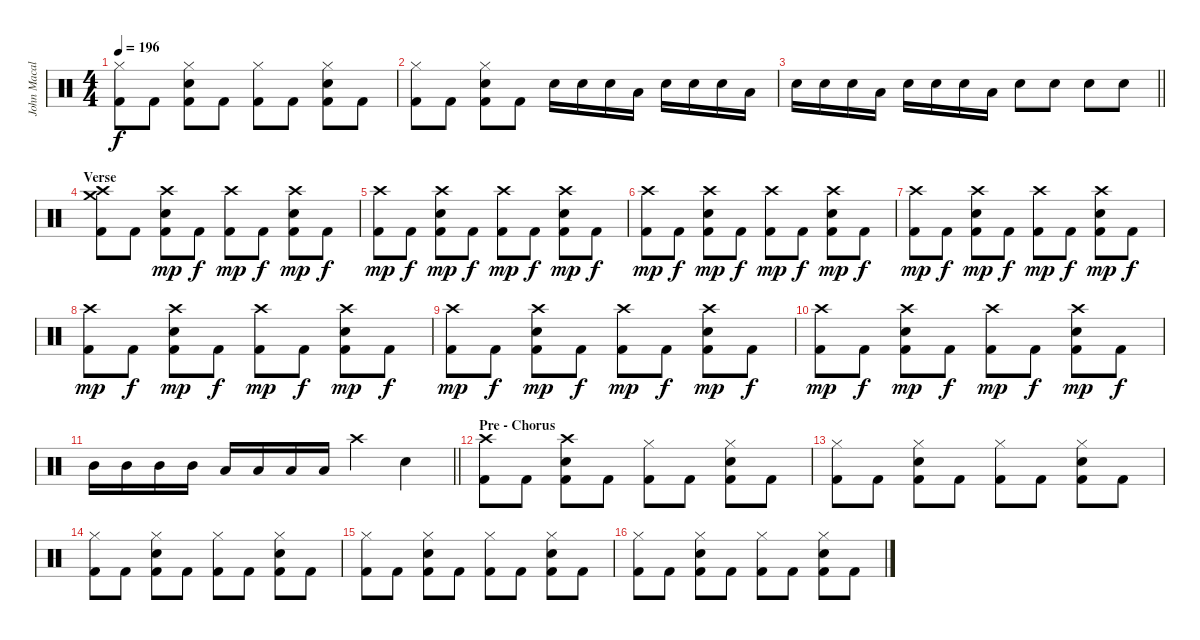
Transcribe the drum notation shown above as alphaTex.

\track ("John Macaluso" "John Macal") {instrument percussion}
\staff {score}
\articulation defaults
\ts (4 4)
\tempo 196
\clef neutral
\ks c
("Hi-Hat (closed)" "Kick (hit) 2").8{dy f} "Kick (hit) 2".8 ("Electric Snare (hit)" "Hi-Hat (closed)" "Kick (hit) 2").8 "Kick (hit) 2".8 ("Hi-Hat (closed)" "Kick (hit) 2").8 "Kick (hit) 2".8 ("Electric Snare (hit)" "Hi-Hat (closed)" "Kick (hit) 2").8 "Kick (hit) 2".8 |
("Hi-Hat (closed)" "Kick (hit) 2").8 "Kick (hit) 2".8 ("Electric Snare (hit)" "Hi-Hat (closed)" "Kick (hit) 2").8 "Kick (hit) 2".8 "Electric Snare (hit)".16 "Electric Snare (hit)".16 "Electric Snare (hit)".16 "Low Tom (hit)".16 "Electric Snare (hit)".16 "Electric Snare (hit)".16 "Electric Snare (hit)".16 "Low Tom (hit)".16 |
\barLineRight lightlight "Electric Snare (hit)".16 "Electric Snare (hit)".16 "Electric Snare (hit)".16 "Low Tom (hit)".16 "Electric Snare (hit)".16 "Electric Snare (hit)".16 "Electric Snare (hit)".16 "Low Tom (hit)".16 "Electric Snare (hit)".8 "Electric Snare (hit)".8 "Electric Snare (hit)".8 "Electric Snare (hit)".8
|
\section ("" "Verse")
("Crash medium (hit)" "Crash high (hit)" "Kick (hit) 2").8 "Kick (hit) 2".8 ("Crash high (hit)" "Electric Snare (hit)" "Kick (hit) 2").8{dy mp} "Kick (hit) 2".8{dy f} ("Crash high (hit)" "Kick (hit) 2").8{dy mp} "Kick (hit) 2".8{dy f} ("Crash high (hit)" "Electric Snare (hit)" "Kick (hit) 2").8{dy mp} "Kick (hit) 2".8{dy f} |
("Crash high (hit)" "Kick (hit) 2").8{dy mp} "Kick (hit) 2".8{dy f} ("Crash high (hit)" "Electric Snare (hit)" "Kick (hit) 2").8{dy mp} "Kick (hit) 2".8{dy f} ("Crash high (hit)" "Kick (hit) 2").8{dy mp} "Kick (hit) 2".8{dy f} ("Crash high (hit)" "Electric Snare (hit)" "Kick (hit) 2").8{dy mp} "Kick (hit) 2".8{dy f} |
("Crash high (hit)" "Kick (hit) 2").8{dy mp} "Kick (hit) 2".8{dy f} ("Crash high (hit)" "Electric Snare (hit)" "Kick (hit) 2").8{dy mp} "Kick (hit) 2".8{dy f} ("Crash high (hit)" "Kick (hit) 2").8{dy mp} "Kick (hit) 2".8{dy f} ("Crash high (hit)" "Electric Snare (hit)" "Kick (hit) 2").8{dy mp} "Kick (hit) 2".8{dy f} |
("Crash high (hit)" "Kick (hit) 2").8{dy mp} "Kick (hit) 2".8{dy f} ("Crash high (hit)" "Electric Snare (hit)" "Kick (hit) 2").8{dy mp} "Kick (hit) 2".8{dy f} ("Crash high (hit)" "Kick (hit) 2").8{dy mp} "Kick (hit) 2".8{dy f} ("Crash high (hit)" "Electric Snare (hit)" "Kick (hit) 2").8{dy mp} "Kick (hit) 2".8{dy f} |
("Crash high (hit)" "Kick (hit) 2").8{dy mp} "Kick (hit) 2".8{dy f} ("Crash high (hit)" "Electric Snare (hit)" "Kick (hit) 2").8{dy mp} "Kick (hit) 2".8{dy f} ("Crash high (hit)" "Kick (hit) 2").8{dy mp} "Kick (hit) 2".8{dy f} ("Crash high (hit)" "Electric Snare (hit)" "Kick (hit) 2").8{dy mp} "Kick (hit) 2".8{dy f} |
("Crash high (hit)" "Kick (hit) 2").8{dy mp} "Kick (hit) 2".8{dy f} ("Crash high (hit)" "Electric Snare (hit)" "Kick (hit) 2").8{dy mp} "Kick (hit) 2".8{dy f} ("Crash high (hit)" "Kick (hit) 2").8{dy mp} "Kick (hit) 2".8{dy f} ("Crash high (hit)" "Electric Snare (hit)" "Kick (hit) 2").8{dy mp} "Kick (hit) 2".8{dy f} |
("Crash high (hit)" "Kick (hit) 2").8{dy mp} "Kick (hit) 2".8{dy f} ("Crash high (hit)" "Electric Snare (hit)" "Kick (hit) 2").8{dy mp} "Kick (hit) 2".8{dy f} ("Crash high (hit)" "Kick (hit) 2").8{dy mp} "Kick (hit) 2".8{dy f} ("Crash high (hit)" "Electric Snare (hit)" "Kick (hit) 2").8{dy mp} "Kick (hit) 2".8{dy f} |
\barLineRight lightlight "Mid Tom (hit)".16 "Mid Tom (hit)".16 "Mid Tom (hit)".16 "Mid Tom (hit)".16 "Low Tom (hit)".16 "Low Tom (hit)".16 "Low Tom (hit)".16 "Low Tom (hit)".16 "Crash high (hit)".4 "Electric Snare (hit)".4
|
\section ("" "Pre - Chorus")
("Crash high (hit)" "Kick (hit) 2").8 "Kick (hit) 2".8 ("Crash high (hit)" "Electric Snare (hit)" "Kick (hit) 2").8 "Kick (hit) 2".8 ("Hi-Hat (closed)" "Kick (hit) 2").8 "Kick (hit) 2".8 ("Electric Snare (hit)" "Hi-Hat (closed)" "Kick (hit) 2").8 "Kick (hit) 2".8 |
("Hi-Hat (closed)" "Kick (hit) 2").8 "Kick (hit) 2".8 ("Electric Snare (hit)" "Hi-Hat (closed)" "Kick (hit) 2").8 "Kick (hit) 2".8 ("Hi-Hat (closed)" "Kick (hit) 2").8 "Kick (hit) 2".8 ("Electric Snare (hit)" "Hi-Hat (closed)" "Kick (hit) 2").8 "Kick (hit) 2".8 |
("Hi-Hat (closed)" "Kick (hit) 2").8 "Kick (hit) 2".8 ("Electric Snare (hit)" "Hi-Hat (closed)" "Kick (hit) 2").8 "Kick (hit) 2".8 ("Hi-Hat (closed)" "Kick (hit) 2").8 "Kick (hit) 2".8 ("Electric Snare (hit)" "Hi-Hat (closed)" "Kick (hit) 2").8 "Kick (hit) 2".8 |
("Hi-Hat (closed)" "Kick (hit) 2").8 "Kick (hit) 2".8 ("Electric Snare (hit)" "Hi-Hat (closed)" "Kick (hit) 2").8 "Kick (hit) 2".8 ("Hi-Hat (closed)" "Kick (hit) 2").8 "Kick (hit) 2".8 ("Electric Snare (hit)" "Hi-Hat (closed)" "Kick (hit) 2").8 "Kick (hit) 2".8 |
("Hi-Hat (closed)" "Kick (hit) 2").8 "Kick (hit) 2".8 ("Electric Snare (hit)" "Hi-Hat (closed)" "Kick (hit) 2").8 "Kick (hit) 2".8 ("Hi-Hat (closed)" "Kick (hit) 2").8 "Kick (hit) 2".8 ("Electric Snare (hit)" "Hi-Hat (closed)" "Kick (hit) 2").8 "Kick (hit) 2".8
